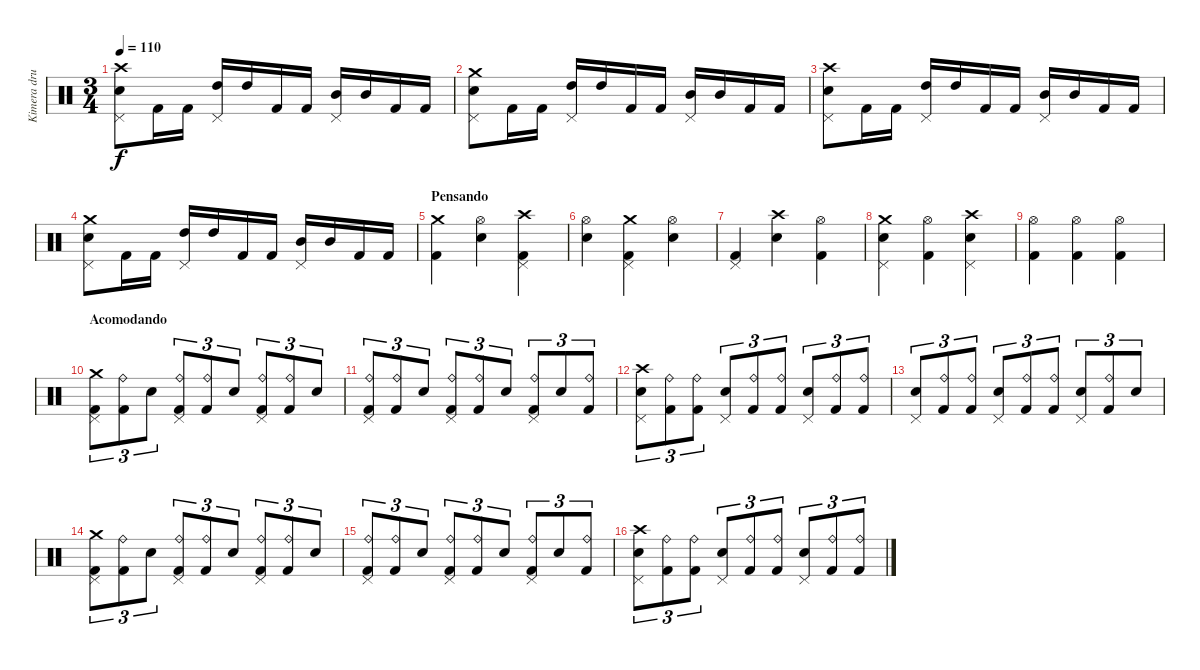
\track ("Kimera drummer" "Kimera dru") {instrument percussion}
\staff {score}
\articulation defaults
\ts (3 4)
\tempo 110
\clef neutral
\ks c
("Crash high (hit)" "Electric Snare (hit)" "Pedal Hi-Hat (hit)").8{dy f} "Kick (hit) 2".16 "Kick (hit) 2".16 ("High Tom (hit)" "Pedal Hi-Hat (hit)").16 "High Tom (hit)".16 "Kick (hit) 2".16 "Kick (hit) 2".16 ("Mid Tom (hit)" "Pedal Hi-Hat (hit)").16 "Mid Tom (hit)".16 "Kick (hit) 2".16 "Kick (hit) 2".16 |
("Crash medium (hit)" "Electric Snare (hit)" "Pedal Hi-Hat (hit)").8 "Kick (hit) 2".16 "Kick (hit) 2".16 ("High Tom (hit)" "Pedal Hi-Hat (hit)").16 "High Tom (hit)".16 "Kick (hit) 2".16 "Kick (hit) 2".16 ("Mid Tom (hit)" "Pedal Hi-Hat (hit)").16 "Mid Tom (hit)".16 "Kick (hit) 2".16 "Kick (hit) 2".16 |
("Crash high (hit)" "Electric Snare (hit)" "Pedal Hi-Hat (hit)").8 "Kick (hit) 2".16 "Kick (hit) 2".16 ("High Tom (hit)" "Pedal Hi-Hat (hit)").16 "High Tom (hit)".16 "Kick (hit) 2".16 "Kick (hit) 2".16 ("Mid Tom (hit)" "Pedal Hi-Hat (hit)").16 "Mid Tom (hit)".16 "Kick (hit) 2".16 "Kick (hit) 2".16 |
("Crash medium (hit)" "Electric Snare (hit)" "Pedal Hi-Hat (hit)").8 "Kick (hit) 2".16 "Kick (hit) 2".16 ("High Tom (hit)" "Pedal Hi-Hat (hit)").16 "High Tom (hit)".16 "Kick (hit) 2".16 "Kick (hit) 2".16 ("Mid Tom (hit)" "Pedal Hi-Hat (hit)").16 "Mid Tom (hit)".16 "Kick (hit) 2".16 "Kick (hit) 2".16 |
\section ("" "Pensando")
("Crash medium (hit)" "Kick (hit) 2").4 ("Hi-Hat (open)" "Electric Snare (hit)").4 ("Crash high (hit)" "Pedal Hi-Hat (hit)" "Kick (hit) 2").4 |
("Hi-Hat (open)" "Electric Snare (hit)").4 ("Crash medium (hit)" "Pedal Hi-Hat (hit)" "Kick (hit) 2").4 ("Hi-Hat (open)" "Electric Snare (hit)").4 |
("Pedal Hi-Hat (hit)" "Kick (hit) 2").4 ("Crash high (hit)" "Electric Snare (hit)").4 ("Hi-Hat (open)" "Kick (hit) 2").4 |
("Crash medium (hit)" "Electric Snare (hit)" "Pedal Hi-Hat (hit)").4 ("Hi-Hat (open)" "Kick (hit) 2").4 ("Crash high (hit)" "Electric Snare (hit)" "Pedal Hi-Hat (hit)").4 |
("Hi-Hat (open)" "Kick (hit) 2").4 ("Hi-Hat (open)" "Kick (hit) 2").4 ("Hi-Hat (open)" "Kick (hit) 2").4 |
\section ("" "Acomodando")
("Crash medium (hit)" "Pedal Hi-Hat (hit)" "Kick (hit) 2").8{tu (3 2)} ("Ride (bell)" "Kick (hit) 2").8{tu (3 2)} "Electric Snare (hit)".8{tu (3 2)} ("Ride (bell)" "Pedal Hi-Hat (hit)" "Kick (hit) 2").8{tu (3 2)} ("Ride (bell)" "Kick (hit) 2").8{tu (3 2)} "Electric Snare (hit)".8{tu (3 2)} ("Ride (bell)" "Pedal Hi-Hat (hit)" "Kick (hit) 2").8{tu (3 2)} ("Ride (bell)" "Kick (hit) 2").8{tu (3 2)} "Electric Snare (hit)".8{tu (3 2)} |
("Ride (bell)" "Pedal Hi-Hat (hit)" "Kick (hit) 2").8{tu (3 2)} ("Ride (bell)" "Kick (hit) 2").8{tu (3 2)} "Electric Snare (hit)".8{tu (3 2)} ("Ride (bell)" "Pedal Hi-Hat (hit)" "Kick (hit) 2").8{tu (3 2)} ("Ride (bell)" "Kick (hit) 2").8{tu (3 2)} "Electric Snare (hit)".8{tu (3 2)} ("Ride (bell)" "Pedal Hi-Hat (hit)" "Kick (hit) 2").8{tu (3 2)} "Electric Snare (hit)".8{tu (3 2)} ("Ride (bell)" "Kick (hit) 2").8{tu (3 2)} |
("Crash high (hit)" "Electric Snare (hit)" "Pedal Hi-Hat (hit)").8{tu (3 2)} ("Ride (bell)" "Kick (hit) 2").8{tu (3 2)} ("Ride (bell)" "Kick (hit) 2").8{tu (3 2)} ("Electric Snare (hit)" "Pedal Hi-Hat (hit)").8{tu (3 2)} ("Ride (bell)" "Kick (hit) 2").8{tu (3 2)} ("Ride (bell)" "Kick (hit) 2").8{tu (3 2)} ("Electric Snare (hit)" "Pedal Hi-Hat (hit)").8{tu (3 2)} ("Ride (bell)" "Kick (hit) 2").8{tu (3 2)} ("Ride (bell)" "Kick (hit) 2").8{tu (3 2)} |
("Electric Snare (hit)" "Pedal Hi-Hat (hit)").8{tu (3 2)} ("Ride (bell)" "Kick (hit) 2").8{tu (3 2)} ("Ride (bell)" "Kick (hit) 2").8{tu (3 2)} ("Electric Snare (hit)" "Pedal Hi-Hat (hit)").8{tu (3 2)} ("Ride (bell)" "Kick (hit) 2").8{tu (3 2)} ("Ride (bell)" "Kick (hit) 2").8{tu (3 2)} ("Electric Snare (hit)" "Pedal Hi-Hat (hit)").8{tu (3 2)} ("Ride (bell)" "Kick (hit) 2").8{tu (3 2)} "Electric Snare (hit)".8{tu (3 2)} |
("Crash medium (hit)" "Pedal Hi-Hat (hit)" "Kick (hit) 2").8{tu (3 2)} ("Ride (bell)" "Kick (hit) 2").8{tu (3 2)} "Electric Snare (hit)".8{tu (3 2)} ("Ride (bell)" "Pedal Hi-Hat (hit)" "Kick (hit) 2").8{tu (3 2)} ("Ride (bell)" "Kick (hit) 2").8{tu (3 2)} "Electric Snare (hit)".8{tu (3 2)} ("Ride (bell)" "Pedal Hi-Hat (hit)" "Kick (hit) 2").8{tu (3 2)} ("Ride (bell)" "Kick (hit) 2").8{tu (3 2)} "Electric Snare (hit)".8{tu (3 2)} |
("Ride (bell)" "Pedal Hi-Hat (hit)" "Kick (hit) 2").8{tu (3 2)} ("Ride (bell)" "Kick (hit) 2").8{tu (3 2)} "Electric Snare (hit)".8{tu (3 2)} ("Ride (bell)" "Pedal Hi-Hat (hit)" "Kick (hit) 2").8{tu (3 2)} ("Ride (bell)" "Kick (hit) 2").8{tu (3 2)} "Electric Snare (hit)".8{tu (3 2)} ("Ride (bell)" "Pedal Hi-Hat (hit)" "Kick (hit) 2").8{tu (3 2)} "Electric Snare (hit)".8{tu (3 2)} ("Ride (bell)" "Kick (hit) 2").8{tu (3 2)} |
("Crash high (hit)" "Electric Snare (hit)" "Pedal Hi-Hat (hit)").8{tu (3 2)} ("Ride (bell)" "Kick (hit) 2").8{tu (3 2)} ("Ride (bell)" "Kick (hit) 2").8{tu (3 2)} ("Electric Snare (hit)" "Pedal Hi-Hat (hit)").8{tu (3 2)} ("Ride (bell)" "Kick (hit) 2").8{tu (3 2)} ("Ride (bell)" "Kick (hit) 2").8{tu (3 2)} ("Electric Snare (hit)" "Pedal Hi-Hat (hit)").8{tu (3 2)} ("Ride (bell)" "Kick (hit) 2").8{tu (3 2)} ("Ride (bell)" "Kick (hit) 2").8{tu (3 2)}
